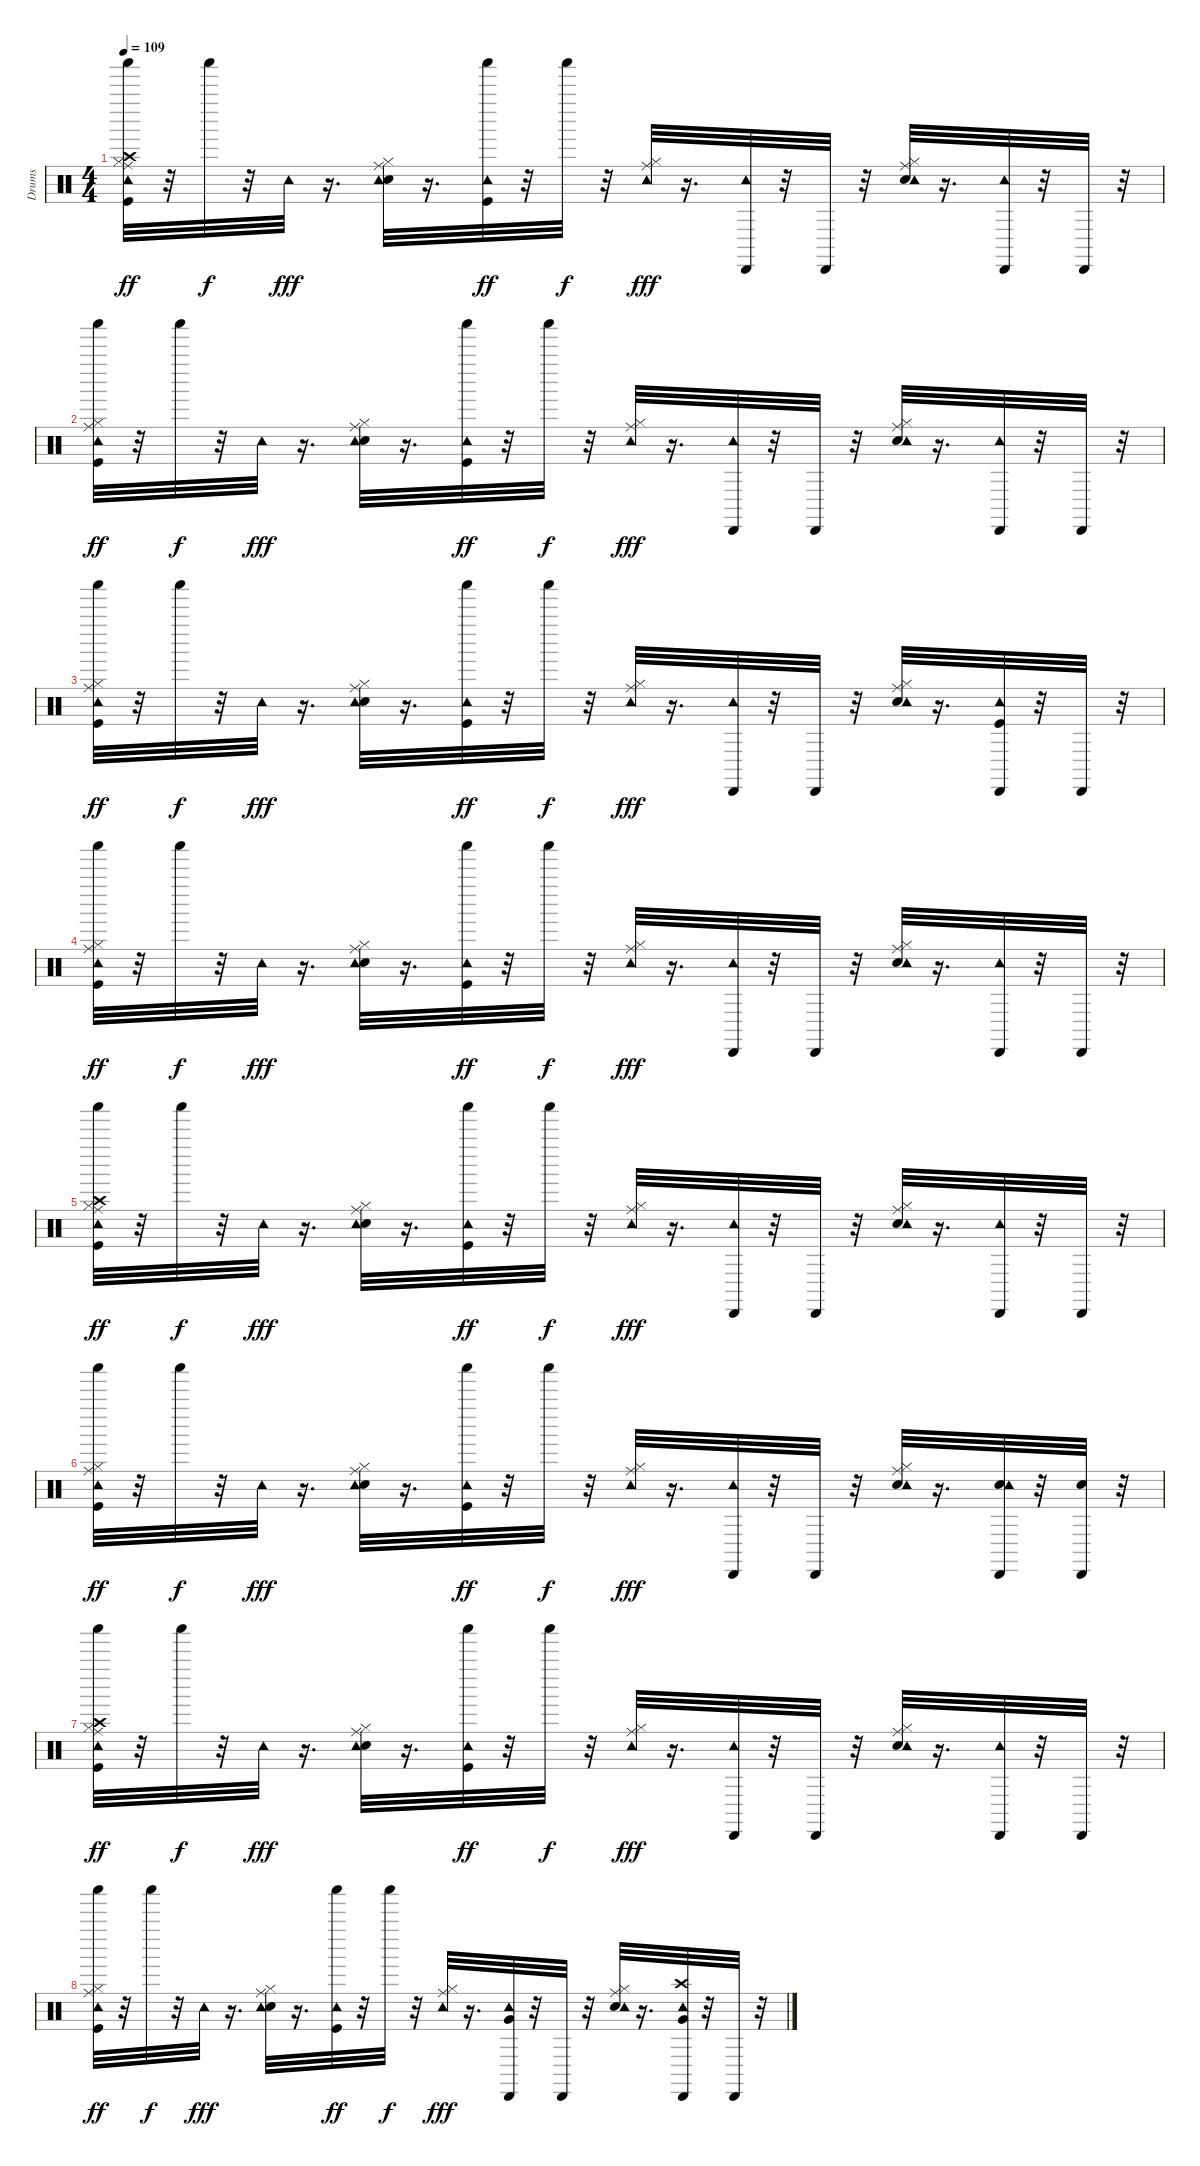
\track ("Drums               " "Drums     ") {instrument percussion}
\staff {score}
\articulation defaults
\ts (4 4)
\tempo 109
\clef neutral
\ks c
("Kick (hit)" "Hi-Hat (closed)" "Crash high (hit)" "Ride (middle)" "Tambourine (hit)" "Shaker (hit)").32{dy ff} r.32 "Shaker (hit)".32{dy f} r.32 "Tambourine (hit)".32{dy fff} r.16{d} ("Electric Snare (hit)" "Hi-Hat (closed)" "Ride (middle)" "Tambourine (hit)").32 r.16{d} ("Kick (hit)" "Tambourine (hit)" "Shaker (hit)").32{dy ff} r.32 "Shaker (hit)".32{dy f} r.32 ("Hi-Hat (closed)" "Ride (middle)" "Tambourine (hit)").32{dy fff} r.16{d} ("Tambourine (hit)" "Cabasa (hit)").32 r.32 "Cabasa (hit)".32 r.32 ("Electric Snare (hit)" "Hi-Hat (closed)" "Ride (middle)" "Tambourine (hit)").32 r.16{d} ("Tambourine (hit)" "Cabasa (hit)").32 r.32 "Cabasa (hit)".32 r.32 |
("Kick (hit)" "Hi-Hat (closed)" "Ride (middle)" "Tambourine (hit)" "Shaker (hit)").32{dy ff} r.32 "Shaker (hit)".32{dy f} r.32 "Tambourine (hit)".32{dy fff} r.16{d} ("Electric Snare (hit)" "Hi-Hat (closed)" "Ride (middle)" "Tambourine (hit)").32 r.16{d} ("Kick (hit)" "Tambourine (hit)" "Shaker (hit)").32{dy ff} r.32 "Shaker (hit)".32{dy f} r.32 ("Hi-Hat (closed)" "Ride (middle)" "Tambourine (hit)").32{dy fff} r.16{d} ("Tambourine (hit)" "Cabasa (hit)").32 r.32 "Cabasa (hit)".32 r.32 ("Electric Snare (hit)" "Hi-Hat (closed)" "Ride (middle)" "Tambourine (hit)").32 r.16{d} ("Tambourine (hit)" "Cabasa (hit)").32 r.32 "Cabasa (hit)".32 r.32 |
("Kick (hit)" "Hi-Hat (closed)" "Ride (middle)" "Tambourine (hit)" "Shaker (hit)").32{dy ff} r.32 "Shaker (hit)".32{dy f} r.32 "Tambourine (hit)".32{dy fff} r.16{d} ("Electric Snare (hit)" "Hi-Hat (closed)" "Ride (middle)" "Tambourine (hit)").32 r.16{d} ("Kick (hit)" "Tambourine (hit)" "Shaker (hit)").32{dy ff} r.32 "Shaker (hit)".32{dy f} r.32 ("Hi-Hat (closed)" "Ride (middle)" "Tambourine (hit)").32{dy fff} r.16{d} ("Tambourine (hit)" "Cabasa (hit)").32 r.32 "Cabasa (hit)".32 r.32 ("Electric Snare (hit)" "Hi-Hat (closed)" "Ride (middle)" "Tambourine (hit)").32 r.16{d} ("Kick (hit)" "Tambourine (hit)" "Cabasa (hit)").32 r.32 "Cabasa (hit)".32 r.32 |
("Kick (hit)" "Hi-Hat (closed)" "Ride (middle)" "Tambourine (hit)" "Shaker (hit)").32{dy ff} r.32 "Shaker (hit)".32{dy f} r.32 "Tambourine (hit)".32{dy fff} r.16{d} ("Electric Snare (hit)" "Hi-Hat (closed)" "Ride (middle)" "Tambourine (hit)").32 r.16{d} ("Kick (hit)" "Tambourine (hit)" "Shaker (hit)").32{dy ff} r.32 "Shaker (hit)".32{dy f} r.32 ("Hi-Hat (closed)" "Ride (middle)" "Tambourine (hit)").32{dy fff} r.16{d} ("Tambourine (hit)" "Cabasa (hit)").32 r.32 "Cabasa (hit)".32 r.32 ("Electric Snare (hit)" "Hi-Hat (closed)" "Ride (middle)" "Tambourine (hit)").32 r.16{d} ("Tambourine (hit)" "Cabasa (hit)").32 r.32 "Cabasa (hit)".32 r.32 |
("Kick (hit)" "Hi-Hat (closed)" "Crash high (hit)" "Ride (middle)" "Tambourine (hit)" "Shaker (hit)").32{dy ff} r.32 "Shaker (hit)".32{dy f} r.32 "Tambourine (hit)".32{dy fff} r.16{d} ("Electric Snare (hit)" "Hi-Hat (closed)" "Ride (middle)" "Tambourine (hit)").32 r.16{d} ("Kick (hit)" "Tambourine (hit)" "Shaker (hit)").32{dy ff} r.32 "Shaker (hit)".32{dy f} r.32 ("Hi-Hat (closed)" "Ride (middle)" "Tambourine (hit)").32{dy fff} r.16{d} ("Tambourine (hit)" "Cabasa (hit)").32 r.32 "Cabasa (hit)".32 r.32 ("Electric Snare (hit)" "Hi-Hat (closed)" "Ride (middle)" "Tambourine (hit)").32 r.16{d} ("Tambourine (hit)" "Cabasa (hit)").32 r.32 "Cabasa (hit)".32 r.32 |
("Kick (hit)" "Hi-Hat (closed)" "Ride (middle)" "Tambourine (hit)" "Shaker (hit)").32{dy ff} r.32 "Shaker (hit)".32{dy f} r.32 "Tambourine (hit)".32{dy fff} r.16{d} ("Electric Snare (hit)" "Hi-Hat (closed)" "Ride (middle)" "Tambourine (hit)").32 r.16{d} ("Kick (hit)" "Tambourine (hit)" "Shaker (hit)").32{dy ff} r.32 "Shaker (hit)".32{dy f} r.32 ("Hi-Hat (closed)" "Ride (middle)" "Tambourine (hit)").32{dy fff} r.16{d} ("Tambourine (hit)" "Cabasa (hit)").32 r.32 "Cabasa (hit)".32 r.32 ("Electric Snare (hit)" "Hi-Hat (closed)" "Ride (middle)" "Tambourine (hit)").32 r.16{d} ("Electric Snare (hit)" "Tambourine (hit)" "Cabasa (hit)").32 r.32 ("Electric Snare (hit)" "Cabasa (hit)").32 r.32 |
("Kick (hit)" "Hi-Hat (closed)" "Crash high (hit)" "Ride (middle)" "Tambourine (hit)" "Shaker (hit)").32{dy ff} r.32 "Shaker (hit)".32{dy f} r.32 "Tambourine (hit)".32{dy fff} r.16{d} ("Electric Snare (hit)" "Hi-Hat (closed)" "Ride (middle)" "Tambourine (hit)").32 r.16{d} ("Kick (hit)" "Tambourine (hit)" "Shaker (hit)").32{dy ff} r.32 "Shaker (hit)".32{dy f} r.32 ("Hi-Hat (closed)" "Ride (middle)" "Tambourine (hit)").32{dy fff} r.16{d} ("Tambourine (hit)" "Cabasa (hit)").32 r.32 "Cabasa (hit)".32 r.32 ("Electric Snare (hit)" "Hi-Hat (closed)" "Ride (middle)" "Tambourine (hit)").32 r.16{d} ("Tambourine (hit)" "Cabasa (hit)").32 r.32 "Cabasa (hit)".32 r.32 |
("Kick (hit)" "Hi-Hat (closed)" "Ride (middle)" "Tambourine (hit)" "Shaker (hit)").32{dy ff} r.32 "Shaker (hit)".32{dy f} r.32 "Tambourine (hit)".32{dy fff} r.16{d} ("Electric Snare (hit)" "Hi-Hat (closed)" "Ride (middle)" "Tambourine (hit)").32 r.16{d} ("Kick (hit)" "Tambourine (hit)" "Shaker (hit)").32{dy ff} r.32 "Shaker (hit)".32{dy f} r.32 ("Hi-Hat (closed)" "Ride (middle)" "Tambourine (hit)").32{dy fff} r.16{d} ("Very Low Tom (hit)" "Tambourine (hit)" "Cabasa (hit)").32 r.32 "Cabasa (hit)".32 r.32 ("Electric Snare (hit)" "Hi-Hat (closed)" "Ride (middle)" "Tambourine (hit)").32 r.16{d} ("Very Low Tom (hit)" "Crash high (hit)" "Tambourine (hit)" "Cabasa (hit)").32 r.32 "Cabasa (hit)".32 r.32
